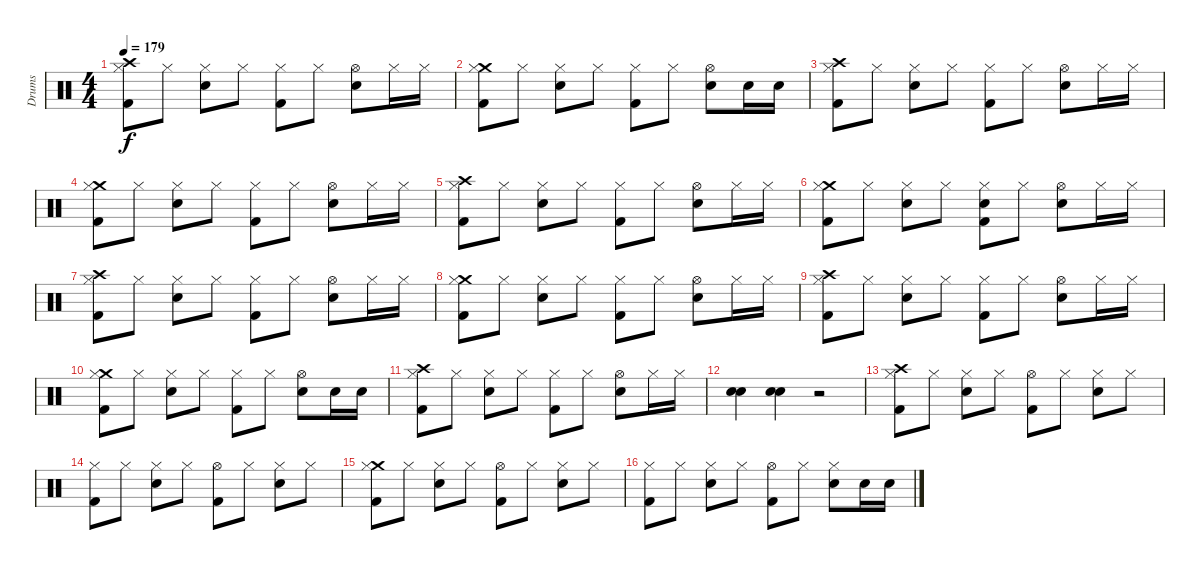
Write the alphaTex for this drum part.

\track ("Drums" "Drums") {instrument percussion}
\staff {score}
\articulation defaults
\ts (4 4)
\tempo 179
\clef neutral
\ks c
("Crash high (hit)" "Hi-Hat (closed)" "Kick (hit) 2").8{dy f} "Hi-Hat (closed)".8 ("Hi-Hat (closed)" "Electric Snare (hit)").8 "Hi-Hat (closed)".8 ("Hi-Hat (closed)" "Kick (hit) 2").8 "Hi-Hat (closed)".8 ("Hi-Hat (open)" "Electric Snare (hit)").8 "Hi-Hat (closed)".16 "Hi-Hat (closed)".16 |
("Crash medium (hit)" "Hi-Hat (closed)" "Kick (hit) 2").8 "Hi-Hat (closed)".8 ("Hi-Hat (closed)" "Electric Snare (hit)").8 "Hi-Hat (closed)".8 ("Hi-Hat (closed)" "Kick (hit) 2").8 "Hi-Hat (closed)".8 ("Hi-Hat (open)" "Electric Snare (hit)").8 "Electric Snare (hit)".16 "Electric Snare (hit)".16 |
("Crash high (hit)" "Hi-Hat (closed)" "Kick (hit) 2").8 "Hi-Hat (closed)".8 ("Hi-Hat (closed)" "Electric Snare (hit)").8 "Hi-Hat (closed)".8 ("Hi-Hat (closed)" "Kick (hit) 2").8 "Hi-Hat (closed)".8 ("Hi-Hat (open)" "Electric Snare (hit)").8 "Hi-Hat (closed)".16 "Hi-Hat (closed)".16 |
("Crash medium (hit)" "Hi-Hat (closed)" "Kick (hit) 2").8 "Hi-Hat (closed)".8 ("Hi-Hat (closed)" "Electric Snare (hit)").8 "Hi-Hat (closed)".8 ("Hi-Hat (closed)" "Kick (hit) 2").8 "Hi-Hat (closed)".8 ("Hi-Hat (open)" "Electric Snare (hit)").8 "Hi-Hat (closed)".16 "Hi-Hat (closed)".16 |
("Crash high (hit)" "Hi-Hat (closed)" "Kick (hit) 2").8 "Hi-Hat (closed)".8 ("Hi-Hat (closed)" "Electric Snare (hit)").8 "Hi-Hat (closed)".8 ("Hi-Hat (closed)" "Kick (hit) 2").8 "Hi-Hat (closed)".8 ("Hi-Hat (open)" "Electric Snare (hit)").8 "Hi-Hat (closed)".16 "Hi-Hat (closed)".16 |
("Crash medium (hit)" "Hi-Hat (closed)" "Kick (hit) 2").8 "Hi-Hat (closed)".8 ("Hi-Hat (closed)" "Electric Snare (hit)").8 "Hi-Hat (closed)".8 ("Electric Snare (hit)" "Hi-Hat (closed)" "Kick (hit) 2").8 "Hi-Hat (closed)".8 ("Hi-Hat (open)" "Electric Snare (hit)").8 "Hi-Hat (closed)".16 "Hi-Hat (closed)".16 |
("Crash high (hit)" "Hi-Hat (closed)" "Kick (hit) 2").8 "Hi-Hat (closed)".8 ("Hi-Hat (closed)" "Electric Snare (hit)").8 "Hi-Hat (closed)".8 ("Hi-Hat (closed)" "Kick (hit) 2").8 "Hi-Hat (closed)".8 ("Hi-Hat (open)" "Electric Snare (hit)").8 "Hi-Hat (closed)".16 "Hi-Hat (closed)".16 |
("Crash medium (hit)" "Hi-Hat (closed)" "Kick (hit) 2").8 "Hi-Hat (closed)".8 ("Hi-Hat (closed)" "Electric Snare (hit)").8 "Hi-Hat (closed)".8 ("Hi-Hat (closed)" "Kick (hit) 2").8 "Hi-Hat (closed)".8 ("Hi-Hat (open)" "Electric Snare (hit)").8 "Hi-Hat (closed)".16 "Hi-Hat (closed)".16 |
("Crash high (hit)" "Hi-Hat (closed)" "Kick (hit) 2").8 "Hi-Hat (closed)".8 ("Hi-Hat (closed)" "Electric Snare (hit)").8 "Hi-Hat (closed)".8 ("Hi-Hat (closed)" "Kick (hit) 2").8 "Hi-Hat (closed)".8 ("Hi-Hat (open)" "Electric Snare (hit)").8 "Hi-Hat (closed)".16 "Hi-Hat (closed)".16 |
("Crash medium (hit)" "Hi-Hat (closed)" "Kick (hit) 2").8 "Hi-Hat (closed)".8 ("Hi-Hat (closed)" "Electric Snare (hit)").8 "Hi-Hat (closed)".8 ("Hi-Hat (closed)" "Kick (hit) 2").8 "Hi-Hat (closed)".8 ("Hi-Hat (open)" "Electric Snare (hit)").8 "Electric Snare (hit)".16 "Electric Snare (hit)".16 |
("Crash high (hit)" "Hi-Hat (closed)" "Kick (hit) 2").8 "Hi-Hat (closed)".8 ("Hi-Hat (closed)" "Electric Snare (hit)").8 "Hi-Hat (closed)".8 ("Hi-Hat (closed)" "Kick (hit) 2").8 "Hi-Hat (closed)".8 ("Hi-Hat (open)" "Electric Snare (hit)").8 "Hi-Hat (closed)".16 "Hi-Hat (closed)".16 |
("Electric Snare (hit)" "Electric Snare (hit)").4 ("Electric Snare (hit)" "Electric Snare (hit)").4 r.2 |
("Kick (hit) 2" "Crash high (hit)" "Hi-Hat (closed)").8 "Hi-Hat (closed)".8 ("Electric Snare (hit)" "Hi-Hat (closed)").8 "Hi-Hat (closed)".8 ("Kick (hit) 2" "Hi-Hat (open)").8 "Hi-Hat (closed)".8 ("Electric Snare (hit)" "Hi-Hat (closed)").8 "Hi-Hat (closed)".8 |
("Kick (hit) 2" "Hi-Hat (closed)").8 "Hi-Hat (closed)".8 ("Electric Snare (hit)" "Hi-Hat (closed)").8 "Hi-Hat (closed)".8 ("Kick (hit) 2" "Hi-Hat (open)").8 "Hi-Hat (closed)".8 ("Electric Snare (hit)" "Hi-Hat (closed)").8 "Hi-Hat (closed)".8 |
("Kick (hit) 2" "Crash medium (hit)" "Hi-Hat (closed)").8 "Hi-Hat (closed)".8 ("Electric Snare (hit)" "Hi-Hat (closed)").8 "Hi-Hat (closed)".8 ("Kick (hit) 2" "Hi-Hat (open)").8 "Hi-Hat (closed)".8 ("Electric Snare (hit)" "Hi-Hat (closed)").8 "Hi-Hat (closed)".8 |
("Kick (hit) 2" "Hi-Hat (closed)").8 "Hi-Hat (closed)".8 ("Electric Snare (hit)" "Hi-Hat (closed)").8 "Hi-Hat (closed)".8 ("Kick (hit) 2" "Hi-Hat (open)").8 "Hi-Hat (closed)".8 ("Electric Snare (hit)" "Hi-Hat (closed)").8 "Electric Snare (hit)".16 "Electric Snare (hit)".16
